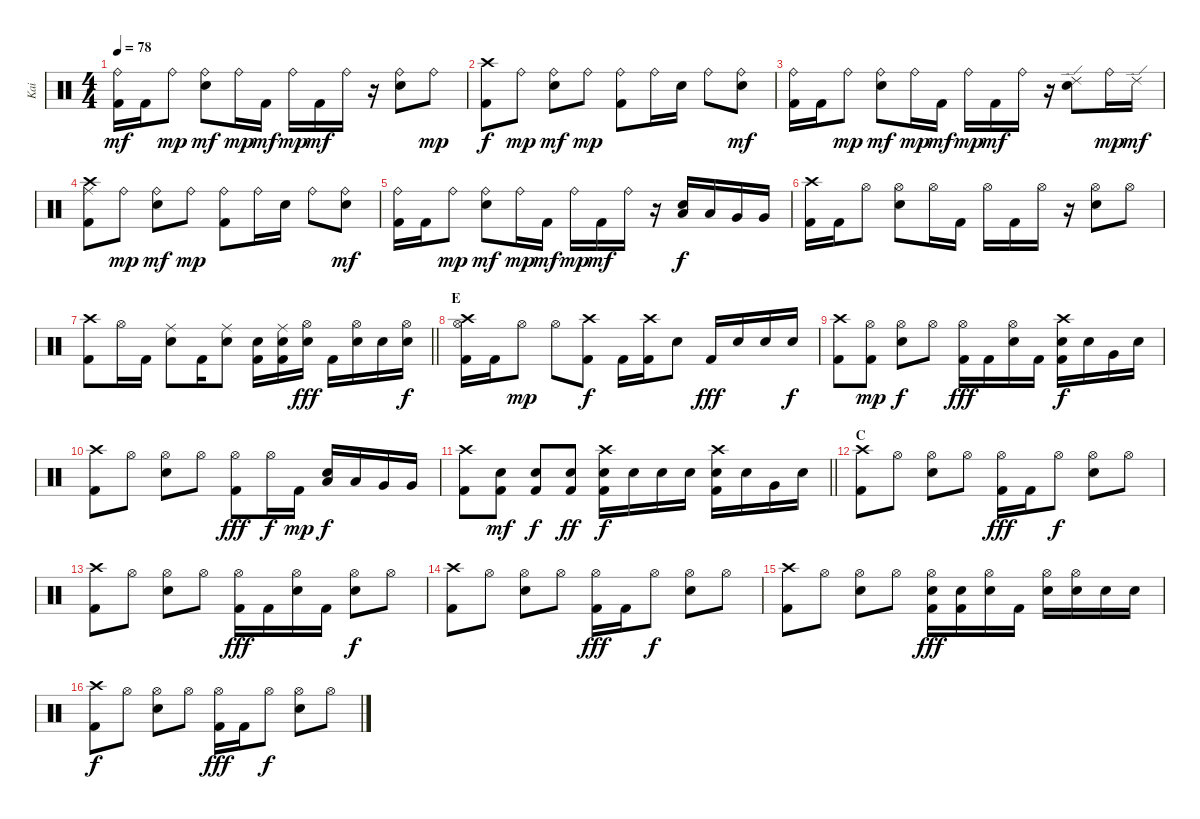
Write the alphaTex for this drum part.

\track ("Kai" "Kai") {instrument percussion}
\staff {score}
\articulation defaults
\ts (4 4)
\tempo 78
\clef neutral
\ks c
("Ride (bell)" "Kick (hit) 2").16{dy mf} "Kick (hit) 2".16 "Ride (bell)".8{dy mp} ("Ride (bell)" "Electric Snare (hit)").8{dy mf} "Ride (bell)".16{dy mp} "Kick (hit) 2".16{dy mf} "Ride (bell)".16{dy mp} "Kick (hit) 2".16{dy mf} "Ride (bell)".16 r.16 ("Ride (bell)" "Electric Snare (hit)").8 "Ride (bell)".8{dy mp} |
("Crash high (hit)" "Kick (hit) 2").8{dy f} "Ride (bell)".8{dy mp} ("Ride (bell)" "Electric Snare (hit)").8{dy mf} "Ride (bell)".8{dy mp} ("Ride (bell)" "Kick (hit) 2").8 "Ride (bell)".16 "Electric Snare (hit)".16 "Ride (bell)".8 ("Ride (bell)" "Electric Snare (hit)").8{dy mf} |
("Ride (bell)" "Kick (hit) 2").16 "Kick (hit) 2".16 "Ride (bell)".8{dy mp} ("Ride (bell)" "Electric Snare (hit)").8{dy mf} "Ride (bell)".16{dy mp} "Kick (hit) 2".16{dy mf} "Ride (bell)".16{dy mp} "Kick (hit) 2".16{dy mf} "Ride (bell)".16 r.16 ("Ride (edge) 2" "Electric Snare (hit)").8 "Ride (bell)".16{dy mp} "Ride (edge) 2".16{dy mf} |
("Ride (middle)" "Crash high (hit)" "Kick (hit) 2").8 "Ride (bell)".8{dy mp} ("Ride (bell)" "Electric Snare (hit)").8{dy mf} "Ride (bell)".8{dy mp} ("Ride (bell)" "Kick (hit) 2").8 "Ride (bell)".16 "Electric Snare (hit)".16 "Ride (bell)".8 ("Ride (bell)" "Electric Snare (hit)").8{dy mf} |
("Ride (bell)" "Kick (hit) 2").16 "Kick (hit) 2".16 "Ride (bell)".8{dy mp} ("Ride (bell)" "Electric Snare (hit)").8{dy mf} "Ride (bell)".16{dy mp} "Kick (hit) 2".16{dy mf} "Ride (bell)".16{dy mp} "Kick (hit) 2".16{dy mf} "Ride (bell)".16 r.16 ("Low Tom (hit)" "Electric Snare (hit)").16{dy f} "Low Tom (hit)".16 "Very Low Tom (hit)".16 "Very Low Tom (hit)".16 |
("Crash high (hit)" "Kick (hit) 2").16 "Kick (hit) 2".16 "Hi-Hat (open)".8 ("Hi-Hat (open)" "Electric Snare (hit)").8 "Hi-Hat (open)".16 "Kick (hit) 2".16 "Hi-Hat (open)".16 "Kick (hit) 2".16 "Hi-Hat (open)".16 r.16 ("Hi-Hat (open)" "Electric Snare (hit)").8 "Hi-Hat (open)".8 |
\barLineRight lightlight
("Crash high (hit)" "Kick (hit) 2").8 "Hi-Hat (open)".16 "Kick (hit) 2".16 ("Ride (middle)" "Electric Snare (hit)").8 "Kick (hit) 2".16 ("Ride (middle)" "Electric Snare (hit)").8 ("Electric Snare (hit)" "Kick (hit) 2").16 ("Ride (middle)" "Electric Snare (hit)" "Kick (hit) 2").16 ("Hi-Hat (open)" "Electric Snare (hit)").16{dy fff} "Kick (hit) 2".16 ("Hi-Hat (open)" "Electric Snare (hit)").16 "Electric Snare (hit)".16 ("Hi-Hat (open)" "Electric Snare (hit)").16{dy f} |
\section ("" "E")
("Crash high (hit)" "Hi-Hat (open)" "Kick (hit) 2").16 "Kick (hit) 2".16 "Hi-Hat (open)".8{dy mp} "Hi-Hat (open)".8 ("Crash high (hit)" "Kick (hit) 2").8{dy f} "Kick (hit) 2".16 ("Crash high (hit)" "Kick (hit) 2").16 "Electric Snare (hit)".8 "Kick (hit) 2".16{dy fff} "Electric Snare (hit)".16 "Electric Snare (hit)".16 "Electric Snare (hit)".16{dy f} |
("Crash high (hit)" "Kick (hit) 2").8 ("Hi-Hat (open)" "Kick (hit) 2").8{dy mp} ("Hi-Hat (open)" "Electric Snare (hit)").8{dy f} "Hi-Hat (open)".8 ("Hi-Hat (open)" "Kick (hit) 2").16{dy fff} "Kick (hit) 2".16 ("Hi-Hat (open)" "Electric Snare (hit)").16 "Kick (hit) 2".16 ("Crash high (hit)" "Electric Snare (hit)" "Kick (hit) 2").16{dy f} "Electric Snare (hit)".16 "Very Low Tom (hit)".16 "Electric Snare (hit)".16 |
("Crash high (hit)" "Kick (hit) 2").8 "Hi-Hat (open)".8 ("Hi-Hat (open)" "Electric Snare (hit)").8 "Hi-Hat (open)".8 ("Hi-Hat (open)" "Kick (hit) 2").8{dy fff} "Hi-Hat (open)".16{dy f} "Kick (hit) 2".16{dy mp} ("Low Tom (hit)" "Electric Snare (hit)").16{dy f} "Low Tom (hit)".16 "Very Low Tom (hit)".16 "Very Low Tom (hit)".16 |
\barLineRight lightlight
("Crash high (hit)" "Kick (hit) 2").8 ("Electric Snare (hit)" "Kick (hit) 2").8{dy mf} ("Electric Snare (hit)" "Kick (hit) 2").8{dy f} ("Electric Snare (hit)" "Kick (hit) 2").8{dy ff} ("Crash high (hit)" "Electric Snare (hit)" "Kick (hit) 2").16{dy f} "Electric Snare (hit)".16 "Electric Snare (hit)".16 "Electric Snare (hit)".16 ("Crash high (hit)" "Electric Snare (hit)" "Kick (hit) 2").16 "Electric Snare (hit)".16 "Very Low Tom (hit)".16 "Electric Snare (hit)".16 |
\section ("" "C")
("Crash high (hit)" "Kick (hit) 2").8 "Hi-Hat (open)".8 ("Hi-Hat (open)" "Electric Snare (hit)").8 "Hi-Hat (open)".8 ("Hi-Hat (open)" "Kick (hit) 2").16{dy fff} "Kick (hit) 2".16 "Hi-Hat (open)".8{dy f} ("Hi-Hat (open)" "Electric Snare (hit)").8 "Hi-Hat (open)".8 |
("Crash high (hit)" "Kick (hit) 2").8 "Hi-Hat (open)".8 ("Hi-Hat (open)" "Electric Snare (hit)").8 "Hi-Hat (open)".8 ("Hi-Hat (open)" "Kick (hit) 2").16{dy fff} "Kick (hit) 2".16 ("Hi-Hat (open)" "Electric Snare (hit)").16 "Kick (hit) 2".16 ("Hi-Hat (open)" "Electric Snare (hit)").8{dy f} "Hi-Hat (open)".8 |
("Crash high (hit)" "Kick (hit) 2").8 "Hi-Hat (open)".8 ("Hi-Hat (open)" "Electric Snare (hit)").8 "Hi-Hat (open)".8 ("Hi-Hat (open)" "Kick (hit) 2").16{dy fff} "Kick (hit) 2".16 "Hi-Hat (open)".8{dy f} ("Hi-Hat (open)" "Electric Snare (hit)").8 "Hi-Hat (open)".8 |
("Crash high (hit)" "Kick (hit) 2").8 "Hi-Hat (open)".8 ("Hi-Hat (open)" "Electric Snare (hit)").8 "Hi-Hat (open)".8 ("Hi-Hat (open)" "Electric Snare (hit)" "Kick (hit) 2").16{dy fff} ("Electric Snare (hit)" "Kick (hit) 2").16 ("Hi-Hat (open)" "Electric Snare (hit)").16 "Kick (hit) 2".16 ("Hi-Hat (open)" "Electric Snare (hit)").16 ("Hi-Hat (open)" "Electric Snare (hit)").16 "Electric Snare (hit)".16 "Electric Snare (hit)".16 |
("Crash high (hit)" "Kick (hit) 2").8{dy f} "Hi-Hat (open)".8 ("Hi-Hat (open)" "Electric Snare (hit)").8 "Hi-Hat (open)".8 ("Hi-Hat (open)" "Kick (hit) 2").16{dy fff} "Kick (hit) 2".16 "Hi-Hat (open)".8{dy f} ("Hi-Hat (open)" "Electric Snare (hit)").8 "Hi-Hat (open)".8
